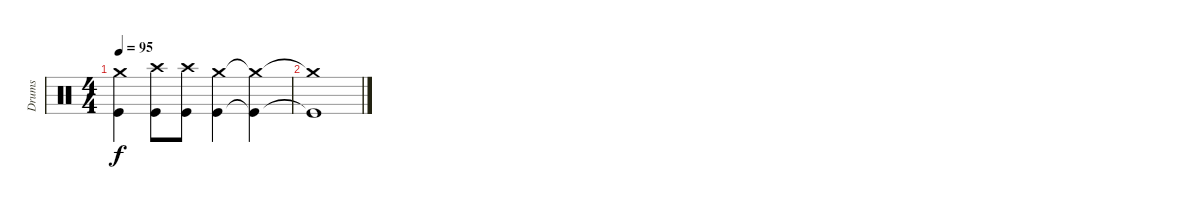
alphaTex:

\track ("Drums" "Drums") {instrument percussion}
\staff {score}
\articulation defaults
\ts (4 4)
\tempo 95
\clef neutral
\ks c
("Crash medium (hit)" "Kick (hit)").4{dy f} ("Crash high (hit)" "Kick (hit)").8 ("Crash high (hit)" "Kick (hit)").8 ("Crash medium (hit)" "Kick (hit)").4 ("Crash medium (hit)"{t} "Kick (hit)"{t}).4 |
("Crash medium (hit)"{t} "Kick (hit)"{t}).1
